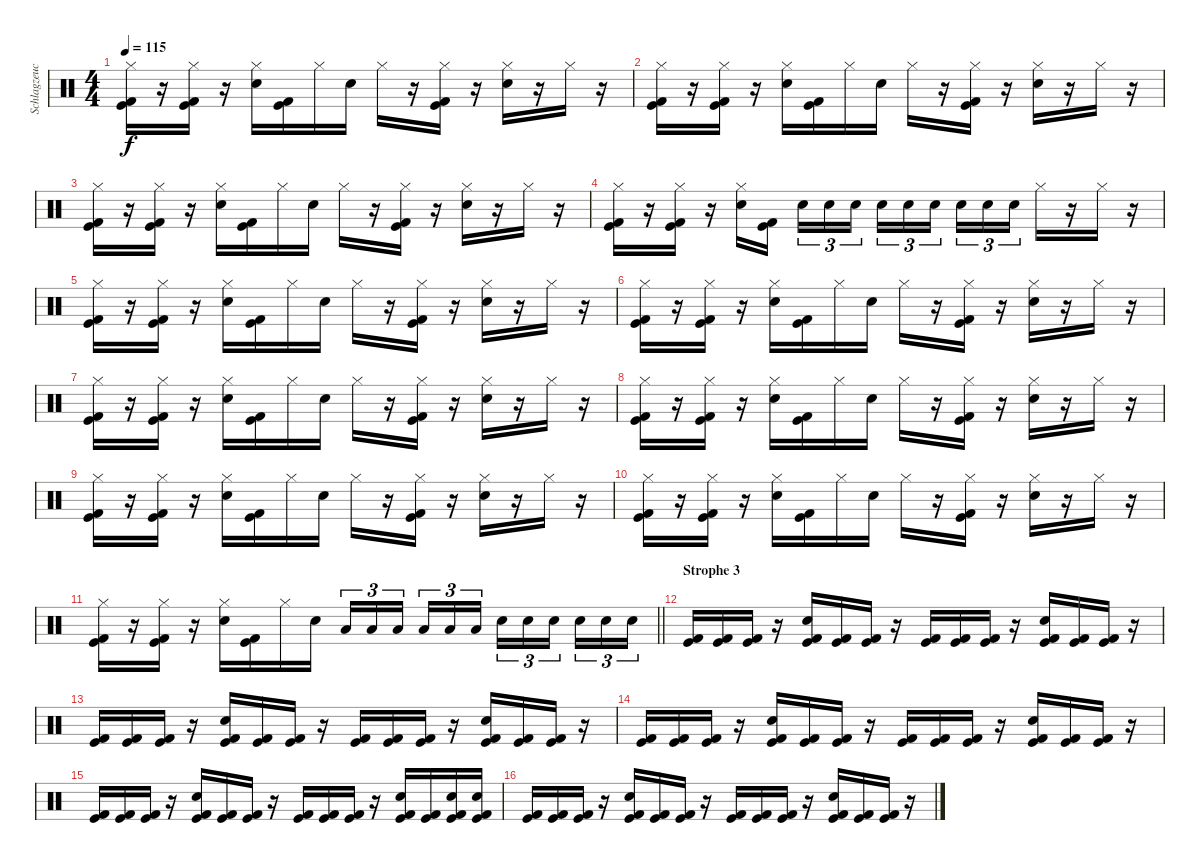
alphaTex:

\track ("Schlagzeuch" "Schlagzeuc") {instrument percussion}
\staff {score}
\articulation defaults
\ts (4 4)
\tempo 115
\clef neutral
\ks c
("Hi-Hat (closed)" "Kick (hit)" "Kick (hit) 2").16{dy f} r.16 ("Hi-Hat (closed)" "Kick (hit)" "Kick (hit) 2").16 r.16 ("Hi-Hat (closed)" "Electric Snare (hit)").16 ("Kick (hit)" "Kick (hit) 2").16 "Hi-Hat (closed)".16 "Electric Snare (hit)".16 "Hi-Hat (closed)".16 r.16 ("Hi-Hat (closed)" "Kick (hit)" "Kick (hit) 2").16 r.16 ("Hi-Hat (closed)" "Electric Snare (hit)").16 r.16 "Hi-Hat (closed)".16 r.16 |
("Hi-Hat (closed)" "Kick (hit)" "Kick (hit) 2").16 r.16 ("Hi-Hat (closed)" "Kick (hit)" "Kick (hit) 2").16 r.16 ("Hi-Hat (closed)" "Electric Snare (hit)").16 ("Kick (hit)" "Kick (hit) 2").16 "Hi-Hat (closed)".16 "Electric Snare (hit)".16 "Hi-Hat (closed)".16 r.16 ("Hi-Hat (closed)" "Kick (hit)" "Kick (hit) 2").16 r.16 ("Hi-Hat (closed)" "Electric Snare (hit)").16 r.16 "Hi-Hat (closed)".16 r.16 |
("Hi-Hat (closed)" "Kick (hit)" "Kick (hit) 2").16 r.16 ("Hi-Hat (closed)" "Kick (hit)" "Kick (hit) 2").16 r.16 ("Hi-Hat (closed)" "Electric Snare (hit)").16 ("Kick (hit)" "Kick (hit) 2").16 "Hi-Hat (closed)".16 "Electric Snare (hit)".16 "Hi-Hat (closed)".16 r.16 ("Hi-Hat (closed)" "Kick (hit)" "Kick (hit) 2").16 r.16 ("Hi-Hat (closed)" "Electric Snare (hit)").16 r.16 "Hi-Hat (closed)".16 r.16 |
("Hi-Hat (closed)" "Kick (hit)" "Kick (hit) 2").16 r.16 ("Hi-Hat (closed)" "Kick (hit)" "Kick (hit) 2").16 r.16 ("Hi-Hat (closed)" "Electric Snare (hit)").16 ("Kick (hit)" "Kick (hit) 2").16{beam splitsecondary} "Electric Snare (hit)".16{tu (3 2)} "Electric Snare (hit)".16{tu (3 2)} "Electric Snare (hit)".16{tu (3 2)} "Electric Snare (hit)".16{tu (3 2)} "Electric Snare (hit)".16{tu (3 2)} "Electric Snare (hit)".16{tu (3 2) beam splitsecondary} "Electric Snare (hit)".16{tu (3 2)} "Electric Snare (hit)".16{tu (3 2)} "Electric Snare (hit)".16{tu (3 2)} "Hi-Hat (closed)".16 r.16 "Hi-Hat (closed)".16 r.16 |
("Hi-Hat (closed)" "Kick (hit)" "Kick (hit) 2").16 r.16 ("Hi-Hat (closed)" "Kick (hit)" "Kick (hit) 2").16 r.16 ("Hi-Hat (closed)" "Electric Snare (hit)").16 ("Kick (hit)" "Kick (hit) 2").16 "Hi-Hat (closed)".16 "Electric Snare (hit)".16 "Hi-Hat (closed)".16 r.16 ("Hi-Hat (closed)" "Kick (hit)" "Kick (hit) 2").16 r.16 ("Hi-Hat (closed)" "Electric Snare (hit)").16 r.16 "Hi-Hat (closed)".16 r.16 |
("Hi-Hat (closed)" "Kick (hit)" "Kick (hit) 2").16 r.16 ("Hi-Hat (closed)" "Kick (hit)" "Kick (hit) 2").16 r.16 ("Hi-Hat (closed)" "Electric Snare (hit)").16 ("Kick (hit)" "Kick (hit) 2").16 "Hi-Hat (closed)".16 "Electric Snare (hit)".16 "Hi-Hat (closed)".16 r.16 ("Hi-Hat (closed)" "Kick (hit)" "Kick (hit) 2").16 r.16 ("Hi-Hat (closed)" "Electric Snare (hit)").16 r.16 "Hi-Hat (closed)".16 r.16 |
("Hi-Hat (closed)" "Kick (hit)" "Kick (hit) 2").16 r.16 ("Hi-Hat (closed)" "Kick (hit)" "Kick (hit) 2").16 r.16 ("Hi-Hat (closed)" "Electric Snare (hit)").16 ("Kick (hit)" "Kick (hit) 2").16 "Hi-Hat (closed)".16 "Electric Snare (hit)".16 "Hi-Hat (closed)".16 r.16 ("Hi-Hat (closed)" "Kick (hit)" "Kick (hit) 2").16 r.16 ("Hi-Hat (closed)" "Electric Snare (hit)").16 r.16 "Hi-Hat (closed)".16 r.16 |
("Hi-Hat (closed)" "Kick (hit)" "Kick (hit) 2").16 r.16 ("Hi-Hat (closed)" "Kick (hit)" "Kick (hit) 2").16 r.16 ("Hi-Hat (closed)" "Electric Snare (hit)").16 ("Kick (hit)" "Kick (hit) 2").16 "Hi-Hat (closed)".16 "Electric Snare (hit)".16 "Hi-Hat (closed)".16 r.16 ("Hi-Hat (closed)" "Kick (hit)" "Kick (hit) 2").16 r.16 ("Hi-Hat (closed)" "Electric Snare (hit)").16 r.16 "Hi-Hat (closed)".16 r.16 |
("Hi-Hat (closed)" "Kick (hit)" "Kick (hit) 2").16 r.16 ("Hi-Hat (closed)" "Kick (hit)" "Kick (hit) 2").16 r.16 ("Hi-Hat (closed)" "Electric Snare (hit)").16 ("Kick (hit)" "Kick (hit) 2").16 "Hi-Hat (closed)".16 "Electric Snare (hit)".16 "Hi-Hat (closed)".16 r.16 ("Hi-Hat (closed)" "Kick (hit)" "Kick (hit) 2").16 r.16 ("Hi-Hat (closed)" "Electric Snare (hit)").16 r.16 "Hi-Hat (closed)".16 r.16 |
("Hi-Hat (closed)" "Kick (hit)" "Kick (hit) 2").16 r.16 ("Hi-Hat (closed)" "Kick (hit)" "Kick (hit) 2").16 r.16 ("Hi-Hat (closed)" "Electric Snare (hit)").16 ("Kick (hit)" "Kick (hit) 2").16 "Hi-Hat (closed)".16 "Electric Snare (hit)".16 "Hi-Hat (closed)".16 r.16 ("Hi-Hat (closed)" "Kick (hit)" "Kick (hit) 2").16 r.16 ("Hi-Hat (closed)" "Electric Snare (hit)").16 r.16 "Hi-Hat (closed)".16 r.16 |
\barLineRight lightlight
("Hi-Hat (closed)" "Kick (hit)" "Kick (hit) 2").16 r.16 ("Hi-Hat (closed)" "Kick (hit)" "Kick (hit) 2").16 r.16 ("Hi-Hat (closed)" "Electric Snare (hit)").16 ("Kick (hit)" "Kick (hit) 2").16 "Hi-Hat (closed)".16 "Electric Snare (hit)".16 "Low Tom (hit)".16{tu (3 2)} "Low Tom (hit)".16{tu (3 2)} "Low Tom (hit)".16{tu (3 2) beam splitsecondary} "Low Tom (hit)".16{tu (3 2)} "Low Tom (hit)".16{tu (3 2)} "Low Tom (hit)".16{tu (3 2)} "Electric Snare (hit)".16{tu (3 2)} "Electric Snare (hit)".16{tu (3 2)} "Electric Snare (hit)".16{tu (3 2) beam splitsecondary} "Electric Snare (hit)".16{tu (3 2)} "Electric Snare (hit)".16{tu (3 2)} "Electric Snare (hit)".16{tu (3 2)} |
\section ("" "Strophe 3")
("Kick (hit)" "Kick (hit) 2").16 ("Kick (hit)" "Kick (hit) 2").16 ("Kick (hit)" "Kick (hit) 2").16 r.16 ("Kick (hit)" "Kick (hit) 2" "Electric Snare (hit)").16 ("Kick (hit)" "Kick (hit) 2").16 ("Kick (hit)" "Kick (hit) 2").16 r.16 ("Kick (hit)" "Kick (hit) 2").16 ("Kick (hit)" "Kick (hit) 2").16 ("Kick (hit)" "Kick (hit) 2").16 r.16 ("Kick (hit)" "Kick (hit) 2" "Electric Snare (hit)").16 ("Kick (hit)" "Kick (hit) 2").16 ("Kick (hit)" "Kick (hit) 2").16 r.16 |
("Kick (hit)" "Kick (hit) 2").16 ("Kick (hit)" "Kick (hit) 2").16 ("Kick (hit)" "Kick (hit) 2").16 r.16 ("Kick (hit)" "Kick (hit) 2" "Electric Snare (hit)").16 ("Kick (hit)" "Kick (hit) 2").16 ("Kick (hit)" "Kick (hit) 2").16 r.16 ("Kick (hit)" "Kick (hit) 2").16 ("Kick (hit)" "Kick (hit) 2").16 ("Kick (hit)" "Kick (hit) 2").16 r.16 ("Kick (hit)" "Kick (hit) 2" "Electric Snare (hit)").16 ("Kick (hit)" "Kick (hit) 2").16 ("Kick (hit)" "Kick (hit) 2").16 r.16 |
("Kick (hit)" "Kick (hit) 2").16 ("Kick (hit)" "Kick (hit) 2").16 ("Kick (hit)" "Kick (hit) 2").16 r.16 ("Kick (hit)" "Kick (hit) 2" "Electric Snare (hit)").16 ("Kick (hit)" "Kick (hit) 2").16 ("Kick (hit)" "Kick (hit) 2").16 r.16 ("Kick (hit)" "Kick (hit) 2").16 ("Kick (hit)" "Kick (hit) 2").16 ("Kick (hit)" "Kick (hit) 2").16 r.16 ("Kick (hit)" "Kick (hit) 2" "Electric Snare (hit)").16 ("Kick (hit)" "Kick (hit) 2").16 ("Kick (hit)" "Kick (hit) 2").16 r.16 |
("Kick (hit)" "Kick (hit) 2").16 ("Kick (hit)" "Kick (hit) 2").16 ("Kick (hit)" "Kick (hit) 2").16 r.16 ("Kick (hit)" "Kick (hit) 2" "Electric Snare (hit)").16 ("Kick (hit)" "Kick (hit) 2").16 ("Kick (hit)" "Kick (hit) 2").16 r.16 ("Kick (hit)" "Kick (hit) 2").16 ("Kick (hit)" "Kick (hit) 2").16 ("Kick (hit)" "Kick (hit) 2").16 r.16 ("Kick (hit)" "Kick (hit) 2" "Electric Snare (hit)").16 ("Kick (hit)" "Kick (hit) 2").16 ("Kick (hit)" "Kick (hit) 2" "Electric Snare (hit)").16 ("Kick (hit)" "Kick (hit) 2" "Electric Snare (hit)").16 |
("Kick (hit)" "Kick (hit) 2").16 ("Kick (hit)" "Kick (hit) 2").16 ("Kick (hit)" "Kick (hit) 2").16 r.16 ("Kick (hit)" "Kick (hit) 2" "Electric Snare (hit)").16 ("Kick (hit)" "Kick (hit) 2").16 ("Kick (hit)" "Kick (hit) 2").16 r.16 ("Kick (hit)" "Kick (hit) 2").16 ("Kick (hit)" "Kick (hit) 2").16 ("Kick (hit)" "Kick (hit) 2").16 r.16 ("Kick (hit)" "Kick (hit) 2" "Electric Snare (hit)").16 ("Kick (hit)" "Kick (hit) 2").16 ("Kick (hit)" "Kick (hit) 2").16 r.16
